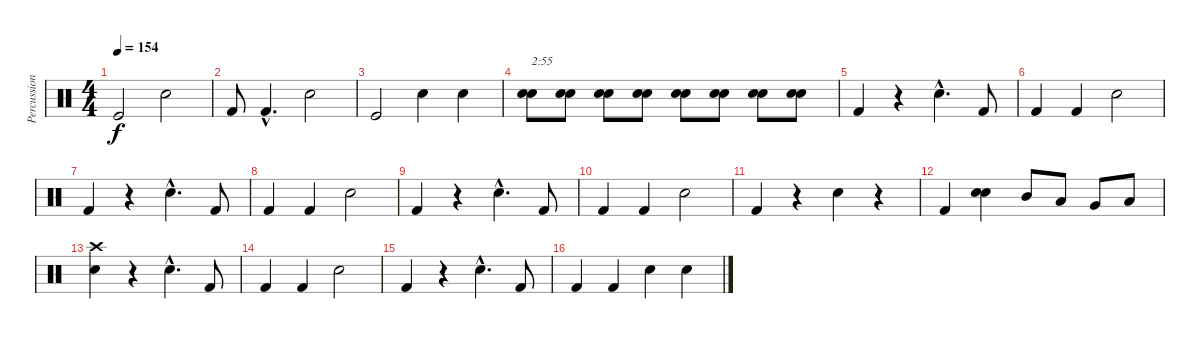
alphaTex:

\track ("Percussion" "Percussion") {instrument percussion}
\staff {score}
\articulation defaults
\ts (4 4)
\tempo 154
\clef neutral
\ks c "Kick (hit)".2{dy f} "Snare (hit) 2".2
|
"Kick (hit) 2".8 "Kick (hit) 2"{hac}.4{d} "Snare (hit) 2".2 |
"Kick (hit)".2 "Snare (hit) 2".4 "Snare (hit) 2".4 |
("Snare (hit) 2" "Electric Snare (hit)").8{txt "2:55"} ("Snare (hit) 2" "Electric Snare (hit)").8 ("Snare (hit) 2" "Electric Snare (hit)").8 ("Snare (hit) 2" "Electric Snare (hit)").8 ("Snare (hit) 2" "Electric Snare (hit)").8 ("Snare (hit) 2" "Electric Snare (hit)").8 ("Snare (hit) 2" "Electric Snare (hit)").8 ("Snare (hit) 2" "Electric Snare (hit)").8 |
"Kick (hit) 2".4 r.4 "Snare (hit) 2"{hac}.4{d} "Kick (hit) 2".8 |
"Kick (hit) 2".4 "Kick (hit) 2".4 "Snare (hit) 2".2 |
"Kick (hit) 2".4 r.4 "Snare (hit) 2"{hac}.4{d} "Kick (hit) 2".8 |
"Kick (hit) 2".4 "Kick (hit) 2".4 "Snare (hit) 2".2 |
"Kick (hit) 2".4 r.4 "Snare (hit) 2"{hac}.4{d} "Kick (hit) 2".8 |
"Kick (hit) 2".4 "Kick (hit) 2".4 "Snare (hit) 2".2 |
"Kick (hit) 2".4 r.4 "Snare (hit) 2".4 r.4 |
"Kick (hit) 2".4 ("Snare (hit) 2" "Electric Snare (hit)").4 "Mid Tom (hit)".8 "Low Tom (hit)".8 "Very Low Tom (hit)".8 "Low Floor Tom (hit)".8 |
("Snare (hit) 2" "Crash high (hit)").4 r.4 "Snare (hit) 2"{hac}.4{d} "Kick (hit) 2".8 |
"Kick (hit) 2".4 "Kick (hit) 2".4 "Snare (hit) 2".2 |
"Kick (hit) 2".4 r.4 "Snare (hit) 2"{hac}.4{d} "Kick (hit) 2".8 |
"Kick (hit) 2".4 "Kick (hit) 2".4 "Snare (hit) 2".4 "Snare (hit) 2".4
